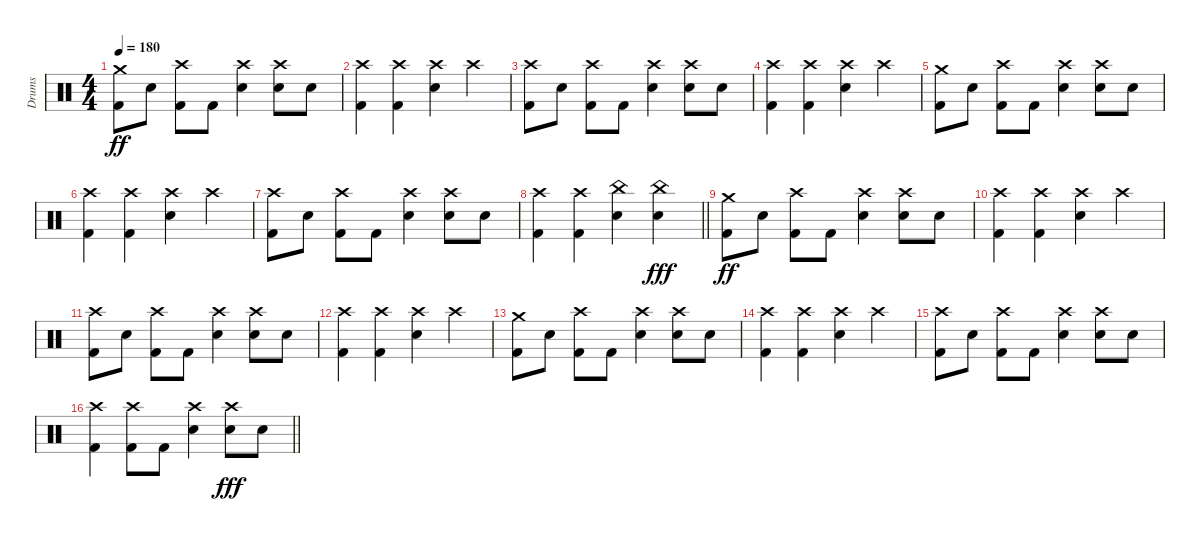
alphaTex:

\track ("Drums" "Drums") {instrument percussion}
\staff {score}
\articulation defaults
\ts (4 4)
\section ("" "")
\tempo 180
\clef neutral
\ks c
("Crash medium (hit)" "Kick (hit) 2").8{dy ff} "Electric Snare (hit)".8 ("Crash high (hit)" "Kick (hit) 2").8 "Kick (hit) 2".8 ("Crash high (hit)" "Electric Snare (hit)").4 ("Crash high (hit)" "Electric Snare (hit)").8 "Electric Snare (hit)".8 |
("Crash high (hit)" "Kick (hit) 2").4 ("Crash high (hit)" "Kick (hit) 2").4 ("Crash high (hit)" "Electric Snare (hit)").4 "Crash high (hit)".4 |
("Crash high (hit)" "Kick (hit) 2").8 "Electric Snare (hit)".8 ("Crash high (hit)" "Kick (hit) 2").8 "Kick (hit) 2".8 ("Crash high (hit)" "Electric Snare (hit)").4 ("Crash high (hit)" "Electric Snare (hit)").8 "Electric Snare (hit)".8 |
("Crash high (hit)" "Kick (hit) 2").4 ("Crash high (hit)" "Kick (hit) 2").4 ("Crash high (hit)" "Electric Snare (hit)").4 "Crash high (hit)".4 |
("Crash medium (hit)" "Kick (hit) 2").8 "Electric Snare (hit)".8 ("Crash high (hit)" "Kick (hit) 2").8 "Kick (hit) 2".8 ("Crash high (hit)" "Electric Snare (hit)").4 ("Crash high (hit)" "Electric Snare (hit)").8 "Electric Snare (hit)".8 |
("Crash high (hit)" "Kick (hit) 2").4 ("Crash high (hit)" "Kick (hit) 2").4 ("Crash high (hit)" "Electric Snare (hit)").4 "Crash high (hit)".4 |
("Crash high (hit)" "Kick (hit) 2").8 "Electric Snare (hit)".8 ("Crash high (hit)" "Kick (hit) 2").8 "Kick (hit) 2".8 ("Crash high (hit)" "Electric Snare (hit)").4 ("Crash high (hit)" "Electric Snare (hit)").8 "Electric Snare (hit)".8 |
\barLineRight lightlight
("Crash high (hit)" "Kick (hit) 2").4 ("Crash high (hit)" "Kick (hit) 2").4 ("China (hit)" "Electric Snare (hit)").4 ("China (hit)" "Electric Snare (hit)").4{dy fff} |
("Crash medium (hit)" "Kick (hit) 2").8{dy ff} "Electric Snare (hit)".8 ("Crash high (hit)" "Kick (hit) 2").8 "Kick (hit) 2".8 ("Crash high (hit)" "Electric Snare (hit)").4 ("Crash high (hit)" "Electric Snare (hit)").8 "Electric Snare (hit)".8 |
("Crash high (hit)" "Kick (hit) 2").4 ("Crash high (hit)" "Kick (hit) 2").4 ("Crash high (hit)" "Electric Snare (hit)").4 "Crash high (hit)".4 |
("Crash high (hit)" "Kick (hit) 2").8 "Electric Snare (hit)".8 ("Crash high (hit)" "Kick (hit) 2").8 "Kick (hit) 2".8 ("Crash high (hit)" "Electric Snare (hit)").4 ("Crash high (hit)" "Electric Snare (hit)").8 "Electric Snare (hit)".8 |
("Crash high (hit)" "Kick (hit) 2").4 ("Crash high (hit)" "Kick (hit) 2").4 ("Crash high (hit)" "Electric Snare (hit)").4 "Crash high (hit)".4 |
("Crash medium (hit)" "Kick (hit) 2").8 "Electric Snare (hit)".8 ("Crash high (hit)" "Kick (hit) 2").8 "Kick (hit) 2".8 ("Crash high (hit)" "Electric Snare (hit)").4 ("Crash high (hit)" "Electric Snare (hit)").8 "Electric Snare (hit)".8 |
("Crash high (hit)" "Kick (hit) 2").4 ("Crash high (hit)" "Kick (hit) 2").4 ("Crash high (hit)" "Electric Snare (hit)").4 "Crash high (hit)".4 |
("Crash high (hit)" "Kick (hit) 2").8 "Electric Snare (hit)".8 ("Crash high (hit)" "Kick (hit) 2").8 "Kick (hit) 2".8 ("Crash high (hit)" "Electric Snare (hit)").4 ("Crash high (hit)" "Electric Snare (hit)").8 "Electric Snare (hit)".8 |
\barLineRight lightlight
("Crash high (hit)" "Kick (hit) 2").4 ("Crash high (hit)" "Kick (hit) 2").8 "Kick (hit) 2".8 ("Crash high (hit)" "Electric Snare (hit)").4 ("Crash high (hit)" "Electric Snare (hit)").8{dy fff} "Electric Snare (hit)".8
